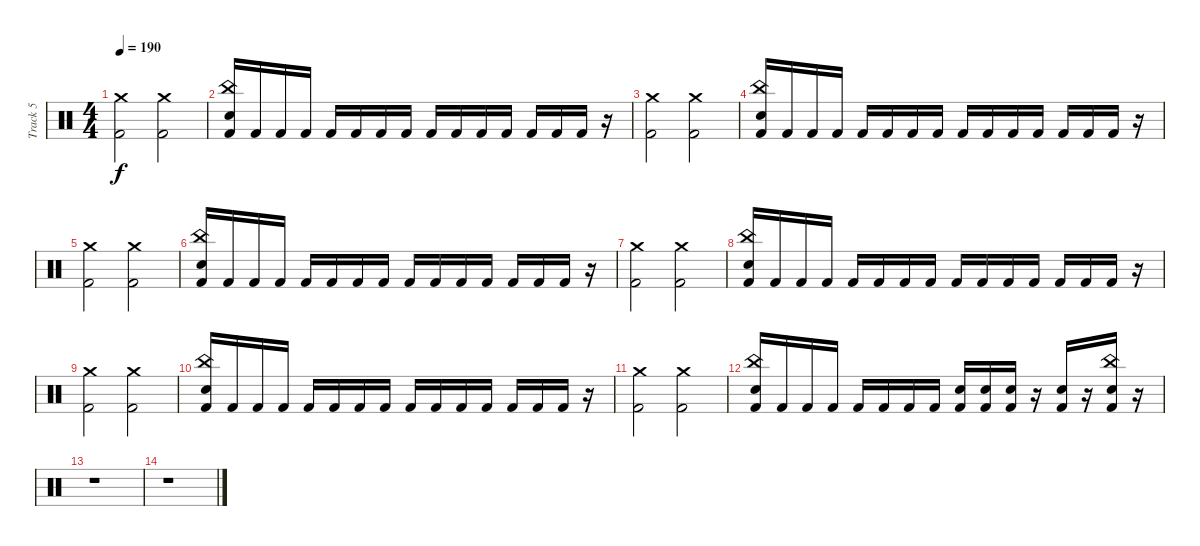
\track ("Track 5" "Track 5") {instrument percussion}
\staff {score}
\articulation defaults
\ts (4 4)
\tempo 190
\clef neutral
\ks c
("Crash medium (hit)" "Kick (hit) 2").2{dy f} ("Crash medium (hit)" "Kick (hit) 2").2 |
("China (hit)" "Electric Snare (hit)" "Kick (hit) 2").16 "Kick (hit) 2".16 "Kick (hit) 2".16 "Kick (hit) 2".16 "Kick (hit) 2".16 "Kick (hit) 2".16 "Kick (hit) 2".16 "Kick (hit) 2".16 "Kick (hit) 2".16 "Kick (hit) 2".16 "Kick (hit) 2".16 "Kick (hit) 2".16 "Kick (hit) 2".16 "Kick (hit) 2".16 "Kick (hit) 2".16 r.16 |
("Crash medium (hit)" "Kick (hit) 2").2 ("Crash medium (hit)" "Kick (hit) 2").2 |
("China (hit)" "Electric Snare (hit)" "Kick (hit) 2").16 "Kick (hit) 2".16 "Kick (hit) 2".16 "Kick (hit) 2".16 "Kick (hit) 2".16 "Kick (hit) 2".16 "Kick (hit) 2".16 "Kick (hit) 2".16 "Kick (hit) 2".16 "Kick (hit) 2".16 "Kick (hit) 2".16 "Kick (hit) 2".16 "Kick (hit) 2".16 "Kick (hit) 2".16 "Kick (hit) 2".16 r.16 |
("Crash medium (hit)" "Kick (hit) 2").2 ("Crash medium (hit)" "Kick (hit) 2").2 |
("China (hit)" "Electric Snare (hit)" "Kick (hit) 2").16 "Kick (hit) 2".16 "Kick (hit) 2".16 "Kick (hit) 2".16 "Kick (hit) 2".16 "Kick (hit) 2".16 "Kick (hit) 2".16 "Kick (hit) 2".16 "Kick (hit) 2".16 "Kick (hit) 2".16 "Kick (hit) 2".16 "Kick (hit) 2".16 "Kick (hit) 2".16 "Kick (hit) 2".16 "Kick (hit) 2".16 r.16 |
("Crash medium (hit)" "Kick (hit) 2").2 ("Crash medium (hit)" "Kick (hit) 2").2 |
("China (hit)" "Electric Snare (hit)" "Kick (hit) 2").16 "Kick (hit) 2".16 "Kick (hit) 2".16 "Kick (hit) 2".16 "Kick (hit) 2".16 "Kick (hit) 2".16 "Kick (hit) 2".16 "Kick (hit) 2".16 "Kick (hit) 2".16 "Kick (hit) 2".16 "Kick (hit) 2".16 "Kick (hit) 2".16 "Kick (hit) 2".16 "Kick (hit) 2".16 "Kick (hit) 2".16 r.16 |
("Crash medium (hit)" "Kick (hit) 2").2 ("Crash medium (hit)" "Kick (hit) 2").2 |
("China (hit)" "Electric Snare (hit)" "Kick (hit) 2").16 "Kick (hit) 2".16 "Kick (hit) 2".16 "Kick (hit) 2".16 "Kick (hit) 2".16 "Kick (hit) 2".16 "Kick (hit) 2".16 "Kick (hit) 2".16 "Kick (hit) 2".16 "Kick (hit) 2".16 "Kick (hit) 2".16 "Kick (hit) 2".16 "Kick (hit) 2".16 "Kick (hit) 2".16 "Kick (hit) 2".16 r.16 |
("Crash medium (hit)" "Kick (hit) 2").2 ("Crash medium (hit)" "Kick (hit) 2").2 |
("China (hit)" "Electric Snare (hit)" "Kick (hit) 2").16 "Kick (hit) 2".16 "Kick (hit) 2".16 "Kick (hit) 2".16 "Kick (hit) 2".16 "Kick (hit) 2".16 "Kick (hit) 2".16 "Kick (hit) 2".16 ("Electric Snare (hit)" "Kick (hit) 2").16 ("Electric Snare (hit)" "Kick (hit) 2").16 ("Electric Snare (hit)" "Kick (hit) 2").16 r.16 ("Electric Snare (hit)" "Kick (hit) 2").16 r.16 ("China (hit)" "Electric Snare (hit)" "Kick (hit) 2").16 r.16 |
r.1 |
r.1
